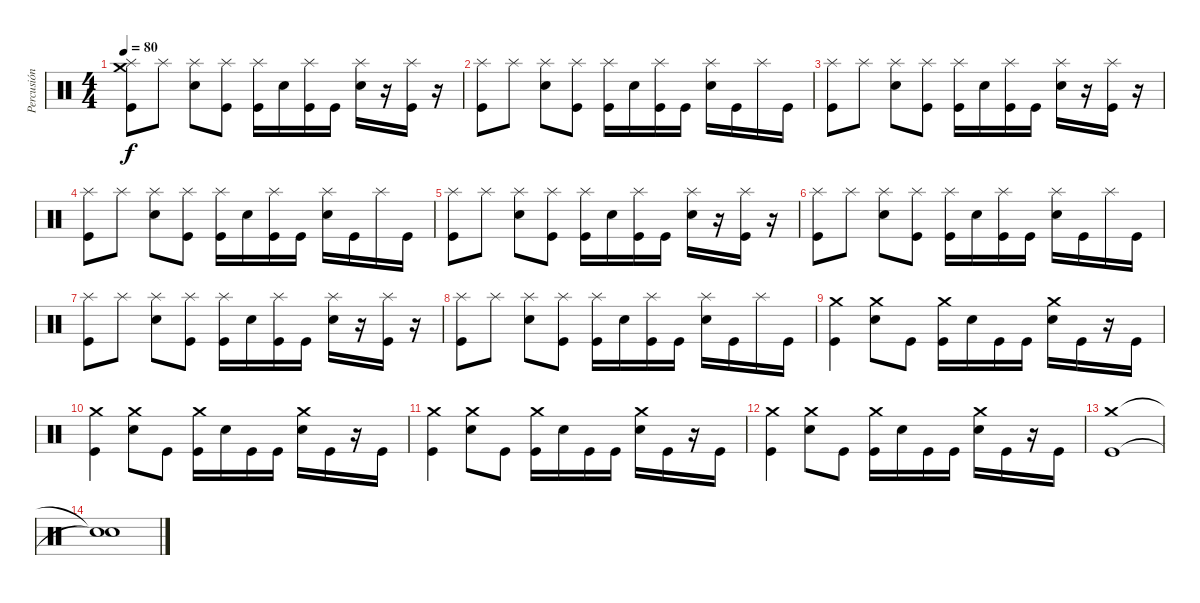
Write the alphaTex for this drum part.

\track ("Percusión" "Percusión") {instrument percussion}
\staff {score}
\articulation defaults
\ts (4 4)
\tempo 80
\clef neutral
\ks c
("Kick (hit)" "Splash (hit)" "Crash medium (hit)").8{dy f} "Splash (hit)".8 ("Snare (hit) 2" "Splash (hit)").8 ("Kick (hit)" "Splash (hit)").8 ("Kick (hit)" "Splash (hit)").16 "Snare (hit) 2".16 ("Kick (hit)" "Splash (hit)").16 "Kick (hit)".16 ("Snare (hit) 2" "Splash (hit)").16 r.16 ("Kick (hit)" "Splash (hit)").16 r.16 |
("Kick (hit)" "Splash (hit)").8 "Splash (hit)".8 ("Snare (hit) 2" "Splash (hit)").8 ("Kick (hit)" "Splash (hit)").8 ("Kick (hit)" "Splash (hit)").16 "Snare (hit) 2".16 ("Kick (hit)" "Splash (hit)").16 "Kick (hit)".16 ("Snare (hit) 2" "Splash (hit)").16 "Kick (hit)".16 "Splash (hit)".16 "Kick (hit)".16 |
("Kick (hit)" "Splash (hit)").8 "Splash (hit)".8 ("Snare (hit) 2" "Splash (hit)").8 ("Kick (hit)" "Splash (hit)").8 ("Kick (hit)" "Splash (hit)").16 "Snare (hit) 2".16 ("Kick (hit)" "Splash (hit)").16 "Kick (hit)".16 ("Snare (hit) 2" "Splash (hit)").16 r.16 ("Kick (hit)" "Splash (hit)").16 r.16 |
("Kick (hit)" "Splash (hit)").8 "Splash (hit)".8 ("Snare (hit) 2" "Splash (hit)").8 ("Kick (hit)" "Splash (hit)").8 ("Kick (hit)" "Splash (hit)").16 "Snare (hit) 2".16 ("Kick (hit)" "Splash (hit)").16 "Kick (hit)".16 ("Snare (hit) 2" "Splash (hit)").16 "Kick (hit)".16 "Splash (hit)".16 "Kick (hit)".16 |
("Kick (hit)" "Splash (hit)").8 "Splash (hit)".8 ("Snare (hit) 2" "Splash (hit)").8 ("Kick (hit)" "Splash (hit)").8 ("Kick (hit)" "Splash (hit)").16 "Snare (hit) 2".16 ("Kick (hit)" "Splash (hit)").16 "Kick (hit)".16 ("Snare (hit) 2" "Splash (hit)").16 r.16 ("Kick (hit)" "Splash (hit)").16 r.16 |
("Kick (hit)" "Splash (hit)").8 "Splash (hit)".8 ("Snare (hit) 2" "Splash (hit)").8 ("Kick (hit)" "Splash (hit)").8 ("Kick (hit)" "Splash (hit)").16 "Snare (hit) 2".16 ("Kick (hit)" "Splash (hit)").16 "Kick (hit)".16 ("Snare (hit) 2" "Splash (hit)").16 "Kick (hit)".16 "Splash (hit)".16 "Kick (hit)".16 |
("Kick (hit)" "Splash (hit)").8 "Splash (hit)".8 ("Snare (hit) 2" "Splash (hit)").8 ("Kick (hit)" "Splash (hit)").8 ("Kick (hit)" "Splash (hit)").16 "Snare (hit) 2".16 ("Kick (hit)" "Splash (hit)").16 "Kick (hit)".16 ("Snare (hit) 2" "Splash (hit)").16 r.16 ("Kick (hit)" "Splash (hit)").16 r.16 |
("Kick (hit)" "Splash (hit)").8 "Splash (hit)".8 ("Snare (hit) 2" "Splash (hit)").8 ("Kick (hit)" "Splash (hit)").8 ("Kick (hit)" "Splash (hit)").16 "Snare (hit) 2".16 ("Kick (hit)" "Splash (hit)").16 "Kick (hit)".16 ("Snare (hit) 2" "Splash (hit)").16 "Kick (hit)".16 "Splash (hit)".16 "Kick (hit)".16 |
("Kick (hit)" "Crash medium (hit)").4 ("Snare (hit) 2" "Crash medium (hit)").8 "Kick (hit)".8 ("Kick (hit)" "Crash medium (hit)").16 "Snare (hit) 2".16 "Kick (hit)".16 "Kick (hit)".16 ("Snare (hit) 2" "Crash medium (hit)").16 "Kick (hit)".16 r.16 "Kick (hit)".16 |
("Kick (hit)" "Crash medium (hit)").4 ("Snare (hit) 2" "Crash medium (hit)").8 "Kick (hit)".8 ("Kick (hit)" "Crash medium (hit)").16 "Snare (hit) 2".16 "Kick (hit)".16 "Kick (hit)".16 ("Snare (hit) 2" "Crash medium (hit)").16 "Kick (hit)".16 r.16 "Kick (hit)".16 |
("Kick (hit)" "Crash medium (hit)").4 ("Snare (hit) 2" "Crash medium (hit)").8 "Kick (hit)".8 ("Kick (hit)" "Crash medium (hit)").16 "Snare (hit) 2".16 "Kick (hit)".16 "Kick (hit)".16 ("Snare (hit) 2" "Crash medium (hit)").16 "Kick (hit)".16 r.16 "Kick (hit)".16 |
("Kick (hit)" "Crash medium (hit)").4 ("Snare (hit) 2" "Crash medium (hit)").8 "Kick (hit)".8 ("Kick (hit)" "Crash medium (hit)").16 "Snare (hit) 2".16 "Kick (hit)".16 "Kick (hit)".16 ("Snare (hit) 2" "Crash medium (hit)").16 "Kick (hit)".16 r.16 "Kick (hit)".16 |
("Kick (hit)" "Crash medium (hit)").1 |
("Snare (hit)"{t} "Snare (hit)"{t}).1
